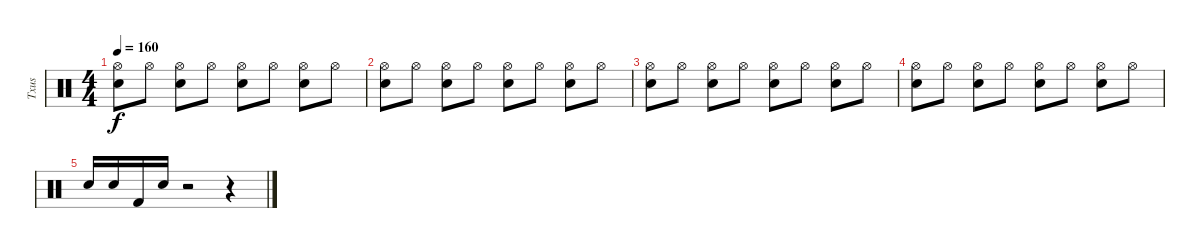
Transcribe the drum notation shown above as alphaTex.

\track ("Txus" "Txus") {instrument percussion}
\staff {score}
\articulation defaults
\ts (4 4)
\tempo 160
\clef neutral
\ks c
("Snare (hit) 2" "Hi-Hat (open)").8{dy f} "Hi-Hat (open)".8 ("Snare (hit) 2" "Hi-Hat (open)").8 "Hi-Hat (open)".8 ("Snare (hit) 2" "Hi-Hat (open)").8 "Hi-Hat (open)".8 ("Snare (hit) 2" "Hi-Hat (open)").8 "Hi-Hat (open)".8 |
("Snare (hit) 2" "Hi-Hat (open)").8 "Hi-Hat (open)".8 ("Snare (hit) 2" "Hi-Hat (open)").8 "Hi-Hat (open)".8 ("Snare (hit) 2" "Hi-Hat (open)").8 "Hi-Hat (open)".8 ("Snare (hit) 2" "Hi-Hat (open)").8 "Hi-Hat (open)".8 |
("Snare (hit) 2" "Hi-Hat (open)").8 "Hi-Hat (open)".8 ("Snare (hit) 2" "Hi-Hat (open)").8 "Hi-Hat (open)".8 ("Snare (hit) 2" "Hi-Hat (open)").8 "Hi-Hat (open)".8 ("Snare (hit) 2" "Hi-Hat (open)").8 "Hi-Hat (open)".8 |
("Snare (hit) 2" "Hi-Hat (open)").8 "Hi-Hat (open)".8 ("Snare (hit) 2" "Hi-Hat (open)").8 "Hi-Hat (open)".8 ("Snare (hit) 2" "Hi-Hat (open)").8 "Hi-Hat (open)".8 ("Snare (hit) 2" "Hi-Hat (open)").8 "Hi-Hat (open)".8 |
"Snare (hit) 2".16 "Snare (hit) 2".16 "Kick (hit) 2".16 "Snare (hit) 2".16 r.2 r.4
